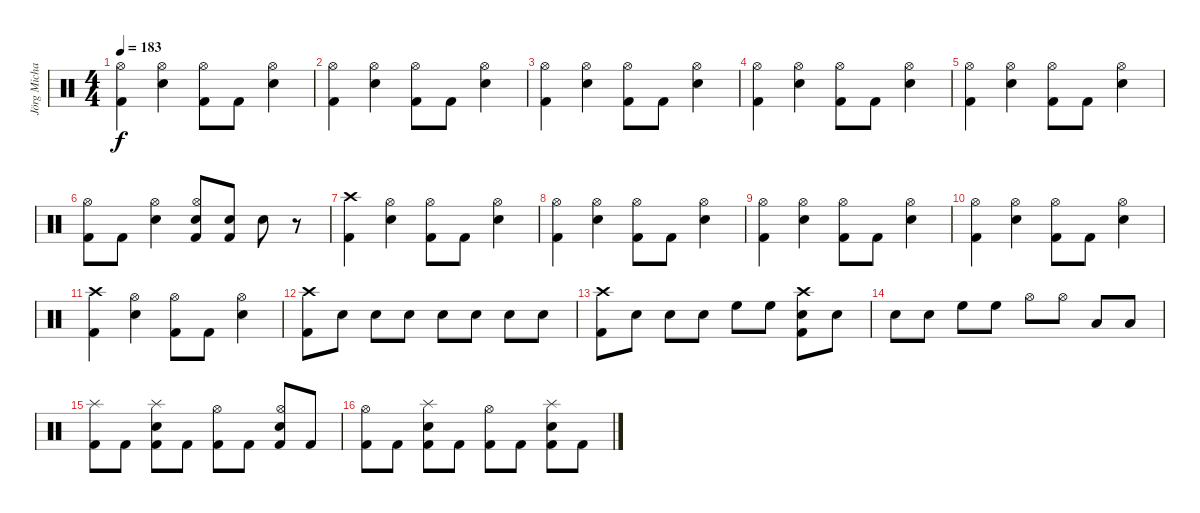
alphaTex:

\track ("Jörg Michael" "Jörg Micha") {instrument percussion}
\staff {score}
\articulation defaults
\ts (4 4)
\tempo 183
\clef neutral
\ks c
("Kick (hit) 2" "Hi-Hat (open)").4{dy f} ("Snare (hit) 2" "Hi-Hat (open)").4 ("Kick (hit) 2" "Hi-Hat (open)").8 "Kick (hit) 2".8 ("Snare (hit) 2" "Hi-Hat (open)").4 |
("Kick (hit) 2" "Hi-Hat (open)").4 ("Snare (hit) 2" "Hi-Hat (open)").4 ("Kick (hit) 2" "Hi-Hat (open)").8 "Kick (hit) 2".8 ("Snare (hit) 2" "Hi-Hat (open)").4 |
("Kick (hit) 2" "Hi-Hat (open)").4 ("Snare (hit) 2" "Hi-Hat (open)").4 ("Kick (hit) 2" "Hi-Hat (open)").8 "Kick (hit) 2".8 ("Snare (hit) 2" "Hi-Hat (open)").4 |
("Kick (hit) 2" "Hi-Hat (open)").4 ("Snare (hit) 2" "Hi-Hat (open)").4 ("Kick (hit) 2" "Hi-Hat (open)").8 "Kick (hit) 2".8 ("Snare (hit) 2" "Hi-Hat (open)").4 |
("Kick (hit) 2" "Hi-Hat (open)").4 ("Snare (hit) 2" "Hi-Hat (open)").4 ("Kick (hit) 2" "Hi-Hat (open)").8 "Kick (hit) 2".8 ("Snare (hit) 2" "Hi-Hat (open)").4 |
("Kick (hit) 2" "Hi-Hat (open)").8 "Kick (hit) 2".8 ("Snare (hit) 2" "Hi-Hat (open)").4 ("Snare (hit) 2" "Kick (hit) 2" "Hi-Hat (open)").8 ("Snare (hit) 2" "Kick (hit) 2").8 "Snare (hit) 2".8 r.8 |
("Kick (hit) 2" "Crash high (hit)").4 ("Snare (hit) 2" "Hi-Hat (open)").4 ("Kick (hit) 2" "Hi-Hat (open)").8 "Kick (hit) 2".8 ("Snare (hit) 2" "Hi-Hat (open)").4 |
("Kick (hit) 2" "Hi-Hat (open)").4 ("Snare (hit) 2" "Hi-Hat (open)").4 ("Kick (hit) 2" "Hi-Hat (open)").8 "Kick (hit) 2".8 ("Snare (hit) 2" "Hi-Hat (open)").4 |
("Kick (hit) 2" "Hi-Hat (open)").4 ("Snare (hit) 2" "Hi-Hat (open)").4 ("Kick (hit) 2" "Hi-Hat (open)").8 "Kick (hit) 2".8 ("Snare (hit) 2" "Hi-Hat (open)").4 |
("Kick (hit) 2" "Hi-Hat (open)").4 ("Snare (hit) 2" "Hi-Hat (open)").4 ("Kick (hit) 2" "Hi-Hat (open)").8 "Kick (hit) 2".8 ("Snare (hit) 2" "Hi-Hat (open)").4 |
("Kick (hit) 2" "Crash high (hit)").4 ("Snare (hit) 2" "Hi-Hat (open)").4 ("Kick (hit) 2" "Hi-Hat (open)").8 "Kick (hit) 2".8 ("Snare (hit) 2" "Hi-Hat (open)").4 |
("Kick (hit) 2" "Crash high (hit)").8 "Snare (hit) 2".8 "Snare (hit) 2".8 "Snare (hit) 2".8 "Snare (hit) 2".8 "Snare (hit) 2".8 "Snare (hit) 2".8 "Snare (hit) 2".8 |
("Kick (hit) 2" "Crash high (hit)").8 "Snare (hit) 2".8 "Snare (hit) 2".8 "Snare (hit) 2".8 "High Floor Tom (hit)".8 "High Floor Tom (hit)".8 ("Kick (hit) 2" "Snare (hit) 2" "Crash high (hit)").8 "Snare (hit) 2".8 |
"Snare (hit) 2".8 "Snare (hit) 2".8 "High Floor Tom (hit)".8 "High Floor Tom (hit)".8 "Hi-Hat (open)".8 "Hi-Hat (open)".8 "Low Tom (hit)".8 "Low Tom (hit)".8 |
("Kick (hit) 2" "Splash (hit)").8 "Kick (hit) 2".8 ("Snare (hit) 2" "Kick (hit) 2" "Splash (hit)").8 "Kick (hit) 2".8 ("Kick (hit) 2" "Hi-Hat (open)").8 "Kick (hit) 2".8 ("Snare (hit) 2" "Kick (hit) 2" "Hi-Hat (open)").8 "Kick (hit) 2".8 |
("Hi-Hat (open)" "Kick (hit) 2").8 "Kick (hit) 2".8 ("Snare (hit) 2" "Kick (hit) 2" "Splash (hit)").8 "Kick (hit) 2".8 ("Kick (hit) 2" "Hi-Hat (open)").8 "Kick (hit) 2".8 ("Snare (hit) 2" "Kick (hit) 2" "Splash (hit)").8 "Kick (hit) 2".8
